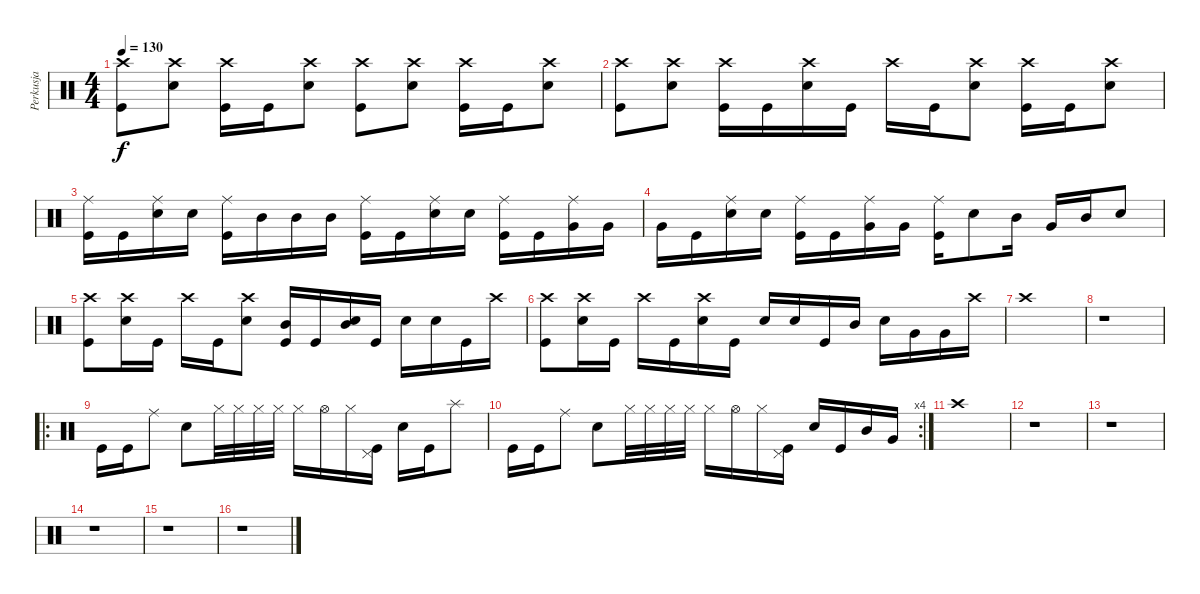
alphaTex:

\track ("Perkusja" "Perkusja") {instrument percussion}
\staff {score}
\articulation defaults
\ts (4 4)
\tempo 130
\clef neutral
\ks c
("Crash high (hit)" "Kick (hit)").8{dy f} ("Crash high (hit)" "Snare (hit) 2").8 ("Crash high (hit)" "Kick (hit)").16 "Kick (hit)".16 ("Crash high (hit)" "Snare (hit) 2").8 ("Crash high (hit)" "Kick (hit)").8 ("Crash high (hit)" "Snare (hit) 2").8 ("Crash high (hit)" "Kick (hit)").16 "Kick (hit)".16 ("Crash high (hit)" "Snare (hit) 2").8 |
("Crash high (hit)" "Kick (hit)").8 ("Crash high (hit)" "Snare (hit) 2").8 ("Crash high (hit)" "Kick (hit)").16 "Kick (hit)".16 ("Crash high (hit)" "Snare (hit) 2").16 "Kick (hit)".16 "Crash high (hit)".16 "Kick (hit)".16 ("Crash high (hit)" "Snare (hit) 2").8 ("Crash high (hit)" "Kick (hit)").16 "Kick (hit)".16 ("Crash high (hit)" "Snare (hit) 2").8 |
("Ride (middle)" "Kick (hit)").16 "Kick (hit)".16 ("Ride (middle)" "Snare (hit) 2").16 "Snare (hit) 2".16 ("Ride (middle)" "Kick (hit)").16 "Mid Tom (hit)".16 "Mid Tom (hit)".16 "Mid Tom (hit)".16 ("Ride (middle)" "Kick (hit)").16 "Kick (hit)".16 ("Ride (middle)" "Snare (hit) 2").16 "Snare (hit) 2".16 ("Ride (middle)" "Kick (hit)").16 "Kick (hit)".16 ("Ride (middle)" "Very Low Tom (hit)").16 "Very Low Tom (hit)".16 |
"Very Low Tom (hit)".16 "Kick (hit)".16 ("Ride (middle)" "Snare (hit) 2").16 "Snare (hit) 2".16 ("Ride (middle)" "Kick (hit)").16 "Kick (hit)".16 ("Ride (middle)" "Very Low Tom (hit)").16 "Very Low Tom (hit)".16 ("Ride (middle)" "Kick (hit)").16 "Snare (hit) 2".8 "Mid Tom (hit)".16 "Very Low Tom (hit)".16 "Mid Tom (hit)".16 "Snare (hit) 2".8 |
("Crash high (hit)" "Kick (hit)").8 ("Crash high (hit)" "Snare (hit) 2").16 "Kick (hit)".16 "Crash high (hit)".16 "Kick (hit)".16 ("Crash high (hit)" "Snare (hit) 2").8 ("Mid Tom (hit)" "Kick (hit)").16 "Kick (hit)".16 ("Mid Tom (hit)" "Snare (hit) 2").16 "Kick (hit)".16 "Snare (hit) 2".16 "Snare (hit) 2".16 "Kick (hit)".16 "Crash high (hit)".16 |
("Crash high (hit)" "Kick (hit)").8 ("Crash high (hit)" "Snare (hit) 2").16 "Kick (hit)".16 "Crash high (hit)".16 "Kick (hit)".16 ("Crash high (hit)" "Snare (hit) 2").16 "Kick (hit)".16 "Snare (hit) 2".16 "Snare (hit) 2".16 "Kick (hit)".16 "Mid Tom (hit)".16 "Snare (hit) 2".16 "Very Low Tom (hit)".16 "Very Low Tom (hit)".16 "Crash high (hit)".16 |
"Crash high (hit)".1 |
r.1 |
\ro "Kick (hit)".16 "Kick (hit)".16 "Ride (middle)".8 "Snare (hit) 2".8 "Hi-Hat (closed)".32 "Hi-Hat (closed)".32 "Hi-Hat (closed)".32 "Hi-Hat (closed)".32 "Hi-Hat (closed)".16 "Hi-Hat (open)".16 "Hi-Hat (closed)".16
("Pedal Hi-Hat (hit)" "Kick (hit)").16 "Snare (hit) 2".16 "Kick (hit)".16 "Splash (hit)".8 |
\rc 4 "Kick (hit)".16 "Kick (hit)".16 "Ride (middle)".8 "Snare (hit) 2".8 "Hi-Hat (closed)".32 "Hi-Hat (closed)".32 "Hi-Hat (closed)".32 "Hi-Hat (closed)".32 "Hi-Hat (closed)".16 "Hi-Hat (open)".16 "Hi-Hat (closed)".16
("Pedal Hi-Hat (hit)" "Kick (hit)").16 "Snare (hit) 2".16 "Kick (hit)".16 "Mid Tom (hit)".16 "Very Low Tom (hit)".16 |
"Crash high (hit)".1 |
r.1 |
r.1 |
r.1 |
r.1 |
r.1
